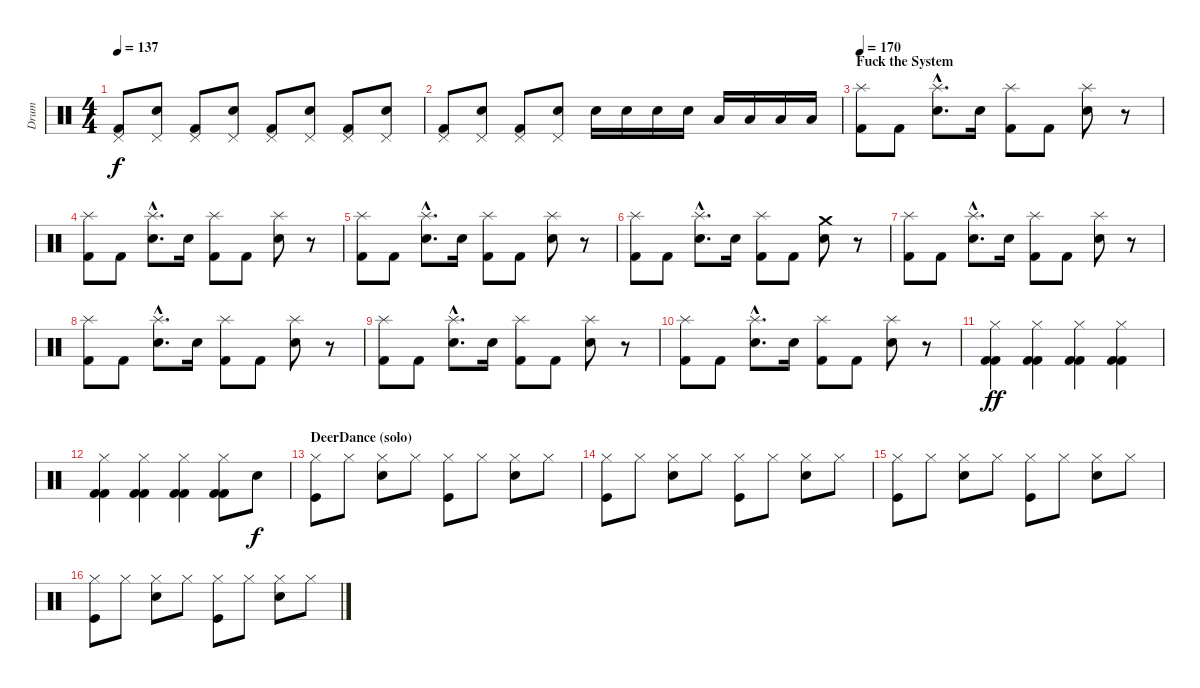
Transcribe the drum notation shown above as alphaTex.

\track ("Drum" "Drum") {instrument percussion}
\staff {score}
\articulation defaults
\ts (4 4)
\tempo 137
\clef neutral
\ks c
("Pedal Hi-Hat (hit)" "Kick (hit) 2").8{dy f} ("Pedal Hi-Hat (hit)" "Snare (hit) 2").8 ("Pedal Hi-Hat (hit)" "Kick (hit) 2").8 ("Pedal Hi-Hat (hit)" "Snare (hit) 2").8 ("Pedal Hi-Hat (hit)" "Kick (hit) 2").8 ("Pedal Hi-Hat (hit)" "Snare (hit) 2").8 ("Pedal Hi-Hat (hit)" "Kick (hit) 2").8 ("Pedal Hi-Hat (hit)" "Snare (hit) 2").8 |
("Pedal Hi-Hat (hit)" "Kick (hit) 2").8 ("Pedal Hi-Hat (hit)" "Snare (hit) 2").8 ("Pedal Hi-Hat (hit)" "Kick (hit) 2").8 ("Pedal Hi-Hat (hit)" "Snare (hit) 2").8 "Snare (hit) 2".16 "Snare (hit) 2".16 "Snare (hit) 2".16 "Snare (hit) 2".16 "Low Tom (hit)".16 "Low Tom (hit)".16 "Low Tom (hit)".16 "Low Tom (hit)".16 |
\section ("" "Fuck the System")
\tempo 170
("Splash (hit)" "Kick (hit) 2").8 "Kick (hit) 2".8 ("Splash (hit)"{hac} "Snare (hit) 2"{hac}).8{d} "Snare (hit) 2".16 ("Splash (hit)" "Kick (hit) 2").8 "Kick (hit) 2".8 ("Splash (hit)" "Snare (hit) 2").8 r.8 |
("Splash (hit)" "Kick (hit) 2").8 "Kick (hit) 2".8 ("Splash (hit)"{hac} "Snare (hit) 2"{hac}).8{d} "Snare (hit) 2".16 ("Splash (hit)" "Kick (hit) 2").8 "Kick (hit) 2".8 ("Splash (hit)" "Snare (hit) 2").8 r.8 |
("Splash (hit)" "Kick (hit) 2").8 "Kick (hit) 2".8 ("Splash (hit)"{hac} "Snare (hit) 2"{hac}).8{d} "Snare (hit) 2".16 ("Splash (hit)" "Kick (hit) 2").8 "Kick (hit) 2".8 ("Splash (hit)" "Snare (hit) 2").8 r.8 |
("Splash (hit)" "Kick (hit) 2").8 "Kick (hit) 2".8 ("Splash (hit)"{hac} "Snare (hit) 2"{hac}).8{d} "Snare (hit) 2".16 ("Splash (hit)" "Kick (hit) 2").8 "Kick (hit) 2".8 ("Crash medium (hit)" "Snare (hit) 2").8 r.8 |
("Splash (hit)" "Kick (hit) 2").8 "Kick (hit) 2".8 ("Splash (hit)"{hac} "Snare (hit) 2"{hac}).8{d} "Snare (hit) 2".16 ("Splash (hit)" "Kick (hit) 2").8 "Kick (hit) 2".8 ("Splash (hit)" "Snare (hit) 2").8 r.8 |
("Splash (hit)" "Kick (hit) 2").8 "Kick (hit) 2".8 ("Splash (hit)"{hac} "Snare (hit) 2"{hac}).8{d} "Snare (hit) 2".16 ("Splash (hit)" "Kick (hit) 2").8 "Kick (hit) 2".8 ("Splash (hit)" "Snare (hit) 2").8 r.8 |
("Splash (hit)" "Kick (hit) 2").8 "Kick (hit) 2".8 ("Splash (hit)"{hac} "Snare (hit) 2"{hac}).8{d} "Snare (hit) 2".16 ("Splash (hit)" "Kick (hit) 2").8 "Kick (hit) 2".8 ("Splash (hit)" "Snare (hit) 2").8 r.8 |
("Splash (hit)" "Kick (hit) 2").8 "Kick (hit) 2".8 ("Splash (hit)"{hac} "Snare (hit) 2"{hac}).8{d} "Snare (hit) 2".16 ("Splash (hit)" "Kick (hit) 2").8 "Kick (hit) 2".8 ("Splash (hit)" "Snare (hit) 2").8 r.8 |
("Hi-Hat (closed)" "Kick (hit) 2" "Kick (hit) 2").4{dy ff} ("Hi-Hat (closed)" "Kick (hit) 2" "Kick (hit) 2").4 ("Hi-Hat (closed)" "Kick (hit) 2" "Kick (hit) 2").4 ("Hi-Hat (closed)" "Kick (hit) 2" "Kick (hit) 2").4 |
("Hi-Hat (closed)" "Kick (hit) 2" "Kick (hit) 2").4 ("Hi-Hat (closed)" "Kick (hit) 2" "Kick (hit) 2").4 ("Hi-Hat (closed)" "Kick (hit) 2" "Kick (hit) 2").4 ("Hi-Hat (closed)" "Kick (hit) 2" "Kick (hit) 2").8 "Snare (hit) 2".8{dy f} |
\section ("" "DeerDance (solo)")
("Hi-Hat (closed)" "Kick (hit)").8 "Hi-Hat (closed)".8 ("Hi-Hat (closed)" "Electric Snare (hit)").8 "Hi-Hat (closed)".8 ("Hi-Hat (closed)" "Kick (hit)").8 "Hi-Hat (closed)".8 ("Hi-Hat (closed)" "Electric Snare (hit)").8 "Hi-Hat (closed)".8 |
("Hi-Hat (closed)" "Kick (hit)").8 "Hi-Hat (closed)".8 ("Hi-Hat (closed)" "Electric Snare (hit)").8 "Hi-Hat (closed)".8 ("Hi-Hat (closed)" "Kick (hit)").8 "Hi-Hat (closed)".8 ("Hi-Hat (closed)" "Electric Snare (hit)").8 "Hi-Hat (closed)".8 |
("Hi-Hat (closed)" "Kick (hit)").8 "Hi-Hat (closed)".8 ("Hi-Hat (closed)" "Electric Snare (hit)").8 "Hi-Hat (closed)".8 ("Hi-Hat (closed)" "Kick (hit)").8 "Hi-Hat (closed)".8 ("Hi-Hat (closed)" "Electric Snare (hit)").8 "Hi-Hat (closed)".8 |
("Hi-Hat (closed)" "Kick (hit)").8 "Hi-Hat (closed)".8 ("Hi-Hat (closed)" "Electric Snare (hit)").8 "Hi-Hat (closed)".8 ("Hi-Hat (closed)" "Kick (hit)").8 "Hi-Hat (closed)".8 ("Hi-Hat (closed)" "Electric Snare (hit)").8 "Hi-Hat (closed)".8
